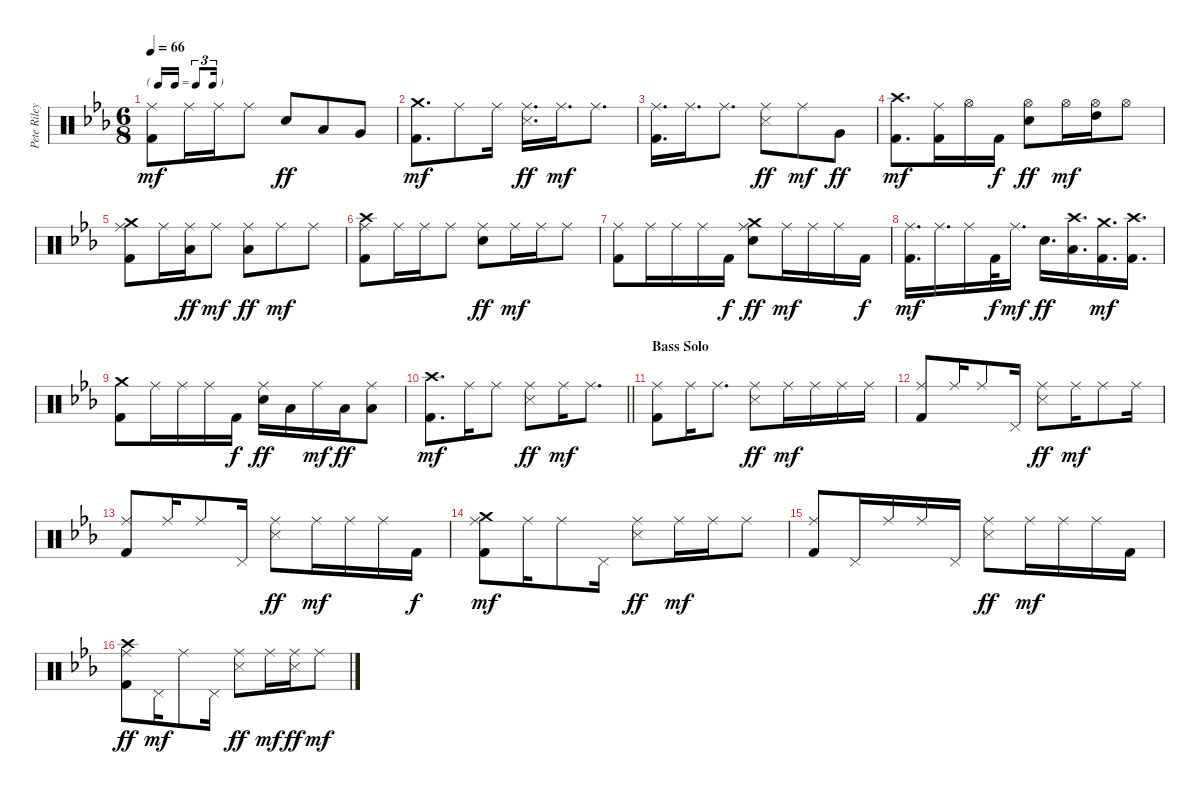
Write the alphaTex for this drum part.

\track ("Pete Riley, Drums" "Pete Riley") {instrument percussion}
\staff {score}
\articulation defaults
\ts (6 8)
\tf triplet16th
\tempo 66
\clef neutral
\ks cminor
("Ride (middle)" "Kick (hit) 2").8{dy mf} "Ride (middle)".16 "Ride (middle)".16 "Ride (middle)".8 "Snare (hit) 2".8{dy ff} "Low Tom (hit)".8 "Very Low Tom (hit)".8 |
("Crash medium (hit)" "Kick (hit) 2").8{d dy mf} "Ride (middle)".8 "Ride (middle)".16 ("Ride (middle)" "Snare (side stick) 3").16{d dy ff} "Ride (middle)".16{d dy mf} "Ride (middle)".8{d} |
("Ride (middle)" "Kick (hit) 2").16{d} "Ride (middle)".16{d} "Ride (middle)".8{d} ("Ride (middle)" "Snare (side stick) 3").8{dy ff} "Ride (middle)".8{dy mf} "Very Low Tom (hit)".8{dy ff} |
("Crash high (hit)" "Kick (hit) 2").8{d dy mf} ("Ride (middle)" "Kick (hit) 2").16 "Hi-Hat (open)".16 "Kick (hit) 2".16{dy f} ("Hi-Hat (open)" "Snare (hit) 2").8{dy ff} "Hi-Hat (open)".16{dy mf} ("High Tom (hit)" "Hi-Hat (open)").16 "Hi-Hat (open)".8 |
("Crash medium (hit)" "Ride (middle)" "Kick (hit) 2").8 "Ride (middle)".16 ("Ride (middle)" "Low Tom (hit)").16{dy ff} "Ride (middle)".8{dy mf} ("Ride (middle)" "Low Floor Tom (hit)").8{dy ff} "Ride (middle)".8{dy mf} "Ride (middle)".8 |
("Crash high (hit)" "Ride (middle)" "Kick (hit) 2").8 "Ride (middle)".16 "Ride (middle)".16 "Ride (middle)".8 ("Ride (middle)" "Snare (hit) 2").8{dy ff} "Ride (middle)".16{dy mf} "Ride (middle)".16 "Ride (middle)".8 |
("Ride (middle)" "Kick (hit) 2").8 "Ride (middle)".16 "Ride (middle)".16 "Ride (middle)".16 "Kick (hit) 2".16{dy f} ("Crash medium (hit)" "Ride (middle)" "Snare (hit) 2").8{dy ff} "Ride (middle)".16{dy mf} "Ride (middle)".16 "Ride (middle)".16 "Kick (hit) 2".16{dy f} |
("Ride (middle)" "Kick (hit) 2").16{d dy mf} "Ride (middle)".16{d} "Ride (middle)".16 "Kick (hit) 2".32{dy f} "Ride (middle)".16{d dy mf} "Snare (hit) 2".16{d dy ff} ("Crash high (hit)" "Low Tom (hit)").16{d} ("Crash medium (hit)" "Kick (hit) 2").16{d dy mf} ("Crash high (hit)" "Kick (hit) 2").16{d} |
("Crash medium (hit)" "Kick (hit) 2").8 "Ride (middle)".16 "Ride (middle)".16 "Ride (middle)".16 "Kick (hit) 2".16{dy f} ("Ride (middle)" "Snare (hit) 2").16{dy ff} "Low Tom (hit)".16 "Ride (middle)".16{dy mf} "Low Floor Tom (hit)".16{dy ff} ("Ride (middle)" "Low Floor Tom (hit)").8 |
\barLineRight lightlight
("Crash high (hit)" "Kick (hit) 2").8{d dy mf} "Ride (middle)".16 "Ride (middle)".8 ("Ride (middle)" "Snare (side stick) 3").8{dy ff} "Ride (middle)".16{dy mf} "Ride (middle)".8{d} |
\section ("" "Bass Solo")
("Ride (middle)" "Kick (hit) 2").8 "Ride (middle)".16 "Ride (middle)".8{d} ("Ride (middle)" "Snare (side stick) 3").8{dy ff} "Ride (middle)".16{dy mf} "Ride (middle)".16 "Ride (middle)".16 "Ride (middle)".16 |
("Ride (middle)" "Kick (hit) 2").8 "Ride (middle)".16 "Ride (middle)".8 "Pedal Hi-Hat (hit)".16 ("Ride (middle)" "Snare (side stick) 3").8{dy ff} "Ride (middle)".16{dy mf} "Ride (middle)".8 "Ride (middle)".16 |
("Ride (middle)" "Kick (hit) 2").8 "Ride (middle)".16 "Ride (middle)".8 "Pedal Hi-Hat (hit)".16 ("Ride (middle)" "Snare (side stick) 3").8{dy ff} "Ride (middle)".16{dy mf} "Ride (middle)".16 "Ride (middle)".16 "Kick (hit) 2".16{dy f} |
("Crash medium (hit)" "Ride (middle)" "Kick (hit) 2").8{dy mf} "Ride (middle)".16 "Ride (middle)".8 "Pedal Hi-Hat (hit)".16 ("Ride (middle)" "Snare (side stick) 3").8{dy ff} "Ride (middle)".16{dy mf} "Ride (middle)".16 "Ride (middle)".8 |
("Ride (middle)" "Kick (hit) 2").8 "Pedal Hi-Hat (hit)".16 "Ride (middle)".16 "Ride (middle)".16 "Pedal Hi-Hat (hit)".16 ("Ride (middle)" "Snare (side stick) 3").8{dy ff} "Ride (middle)".16{dy mf} "Ride (middle)".16 "Ride (middle)".16 "Kick (hit) 2".16 |
("Crash high (hit)" "Ride (middle)" "Kick (hit) 2").8{dy ff} "Pedal Hi-Hat (hit)".16{dy mf} "Ride (middle)".8 "Pedal Hi-Hat (hit)".16 ("Ride (middle)" "Snare (side stick) 3").8{dy ff} "Ride (middle)".16{dy mf} ("Ride (middle)" "Snare (side stick) 3").16{dy ff} "Ride (middle)".8{dy mf}
